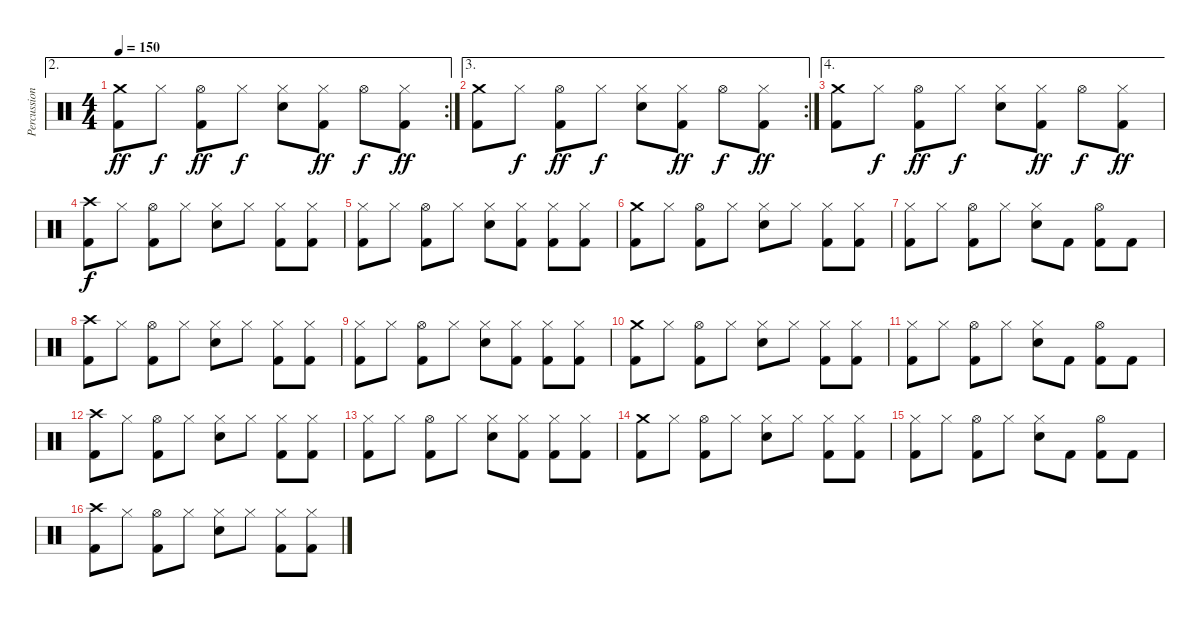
\track ("Percussion" "Percussion") {instrument percussion}
\staff {score}
\articulation defaults
\ae 2
\rc 2
\ts (4 4)
\tempo 150
\clef neutral
\ks c
("Crash medium (hit)" "Kick (hit) 2").8{dy ff} "Hi-Hat (closed)".8{dy f} ("Hi-Hat (open)" "Kick (hit) 2").8{dy ff} "Hi-Hat (closed)".8{dy f} ("Hi-Hat (closed)" "Snare (hit) 2").8 ("Hi-Hat (closed)" "Kick (hit) 2").8{dy ff} "Hi-Hat (open)".8{dy f} ("Hi-Hat (closed)" "Kick (hit) 2").8{dy ff} |
\ae 3
\rc 2
("Crash medium (hit)" "Kick (hit) 2").8 "Hi-Hat (closed)".8{dy f} ("Hi-Hat (open)" "Kick (hit) 2").8{dy ff} "Hi-Hat (closed)".8{dy f} ("Hi-Hat (closed)" "Snare (hit) 2").8 ("Hi-Hat (closed)" "Kick (hit) 2").8{dy ff} "Hi-Hat (open)".8{dy f} ("Hi-Hat (closed)" "Kick (hit) 2").8{dy ff} |
\ae 4
("Crash medium (hit)" "Kick (hit) 2").8 "Hi-Hat (closed)".8{dy f} ("Hi-Hat (open)" "Kick (hit) 2").8{dy ff} "Hi-Hat (closed)".8{dy f} ("Hi-Hat (closed)" "Snare (hit) 2").8 ("Hi-Hat (closed)" "Kick (hit) 2").8{dy ff} "Hi-Hat (open)".8{dy f} ("Hi-Hat (closed)" "Kick (hit) 2").8{dy ff} |
("Crash high (hit)" "Kick (hit) 2").8{dy f} "Hi-Hat (closed)".8 ("Hi-Hat (open)" "Kick (hit) 2").8 "Hi-Hat (closed)".8 ("Hi-Hat (closed)" "Snare (hit) 2").8 "Hi-Hat (closed)".8 ("Hi-Hat (closed)" "Kick (hit) 2").8 ("Hi-Hat (closed)" "Kick (hit) 2").8 |
("Hi-Hat (closed)" "Kick (hit) 2").8 "Hi-Hat (closed)".8 ("Hi-Hat (open)" "Kick (hit) 2").8 "Hi-Hat (closed)".8 ("Hi-Hat (closed)" "Snare (hit) 2").8 ("Hi-Hat (closed)" "Kick (hit) 2").8 ("Hi-Hat (closed)" "Kick (hit) 2").8 ("Hi-Hat (closed)" "Kick (hit) 2").8 |
("Crash medium (hit)" "Kick (hit) 2").8 "Hi-Hat (closed)".8 ("Hi-Hat (open)" "Kick (hit) 2").8 "Hi-Hat (closed)".8 ("Hi-Hat (closed)" "Snare (hit) 2").8 "Hi-Hat (closed)".8 ("Hi-Hat (closed)" "Kick (hit) 2").8 ("Hi-Hat (closed)" "Kick (hit) 2").8 |
("Hi-Hat (closed)" "Kick (hit) 2").8 "Hi-Hat (closed)".8 ("Hi-Hat (open)" "Kick (hit) 2").8 "Hi-Hat (closed)".8 ("Hi-Hat (closed)" "Snare (hit) 2").8 "Kick (hit) 2".8 ("Hi-Hat (open)" "Kick (hit) 2").8 "Kick (hit) 2".8 |
("Crash high (hit)" "Kick (hit) 2").8 "Hi-Hat (closed)".8 ("Hi-Hat (open)" "Kick (hit) 2").8 "Hi-Hat (closed)".8 ("Hi-Hat (closed)" "Snare (hit) 2").8 "Hi-Hat (closed)".8 ("Hi-Hat (closed)" "Kick (hit) 2").8 ("Hi-Hat (closed)" "Kick (hit) 2").8 |
("Hi-Hat (closed)" "Kick (hit) 2").8 "Hi-Hat (closed)".8 ("Hi-Hat (open)" "Kick (hit) 2").8 "Hi-Hat (closed)".8 ("Hi-Hat (closed)" "Snare (hit) 2").8 ("Hi-Hat (closed)" "Kick (hit) 2").8 ("Hi-Hat (closed)" "Kick (hit) 2").8 ("Hi-Hat (closed)" "Kick (hit) 2").8 |
("Crash medium (hit)" "Kick (hit) 2").8 "Hi-Hat (closed)".8 ("Hi-Hat (open)" "Kick (hit) 2").8 "Hi-Hat (closed)".8 ("Hi-Hat (closed)" "Snare (hit) 2").8 "Hi-Hat (closed)".8 ("Hi-Hat (closed)" "Kick (hit) 2").8 ("Hi-Hat (closed)" "Kick (hit) 2").8 |
("Hi-Hat (closed)" "Kick (hit) 2").8 "Hi-Hat (closed)".8 ("Hi-Hat (open)" "Kick (hit) 2").8 "Hi-Hat (closed)".8 ("Hi-Hat (closed)" "Snare (hit) 2").8 "Kick (hit) 2".8 ("Hi-Hat (open)" "Kick (hit) 2").8 "Kick (hit) 2".8 |
("Crash high (hit)" "Kick (hit) 2").8 "Hi-Hat (closed)".8 ("Hi-Hat (open)" "Kick (hit) 2").8 "Hi-Hat (closed)".8 ("Hi-Hat (closed)" "Snare (hit) 2").8 "Hi-Hat (closed)".8 ("Hi-Hat (closed)" "Kick (hit) 2").8 ("Hi-Hat (closed)" "Kick (hit) 2").8 |
("Hi-Hat (closed)" "Kick (hit) 2").8 "Hi-Hat (closed)".8 ("Hi-Hat (open)" "Kick (hit) 2").8 "Hi-Hat (closed)".8 ("Hi-Hat (closed)" "Snare (hit) 2").8 ("Hi-Hat (closed)" "Kick (hit) 2").8 ("Hi-Hat (closed)" "Kick (hit) 2").8 ("Hi-Hat (closed)" "Kick (hit) 2").8 |
("Crash medium (hit)" "Kick (hit) 2").8 "Hi-Hat (closed)".8 ("Hi-Hat (open)" "Kick (hit) 2").8 "Hi-Hat (closed)".8 ("Hi-Hat (closed)" "Snare (hit) 2").8 "Hi-Hat (closed)".8 ("Hi-Hat (closed)" "Kick (hit) 2").8 ("Hi-Hat (closed)" "Kick (hit) 2").8 |
("Hi-Hat (closed)" "Kick (hit) 2").8 "Hi-Hat (closed)".8 ("Hi-Hat (open)" "Kick (hit) 2").8 "Hi-Hat (closed)".8 ("Hi-Hat (closed)" "Snare (hit) 2").8 "Kick (hit) 2".8 ("Hi-Hat (open)" "Kick (hit) 2").8 "Kick (hit) 2".8 |
("Crash high (hit)" "Kick (hit) 2").8 "Hi-Hat (closed)".8 ("Hi-Hat (open)" "Kick (hit) 2").8 "Hi-Hat (closed)".8 ("Hi-Hat (closed)" "Snare (hit) 2").8 "Hi-Hat (closed)".8 ("Hi-Hat (closed)" "Kick (hit) 2").8 ("Hi-Hat (closed)" "Kick (hit) 2").8
